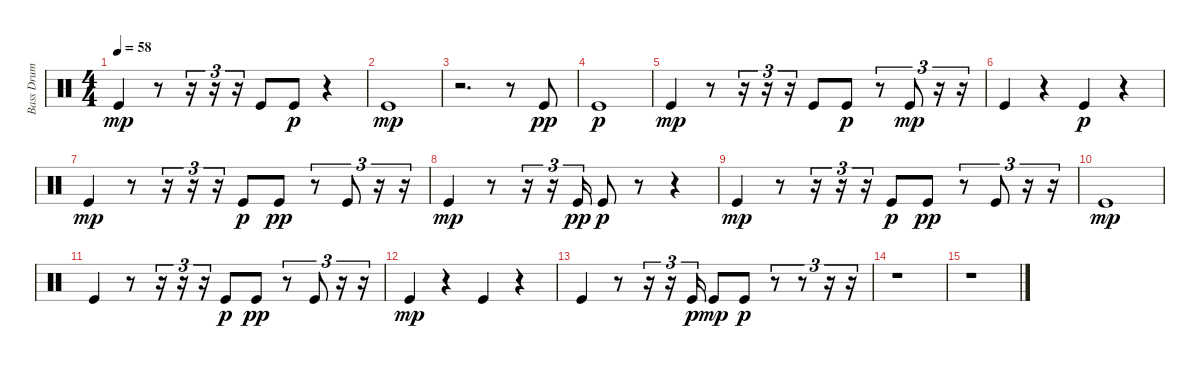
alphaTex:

\track ("Bass Drum" "Bass Drum") {instrument percussion}
\staff {score}
\articulation defaults
\ts (4 4)
\tempo 58
\clef neutral
\ks c "Kick (hit)".4{dy mp}
r.8 r.16{tu (3 2)} r.16{tu (3 2)} r.16{tu (3 2)} "Kick (hit)".8 "Kick (hit)".8{dy p} r.4 |
"Kick (hit)".1{dy mp} |
r.2{d} r.8 "Kick (hit)".8{dy pp} |
"Kick (hit)".1{dy p} |
"Kick (hit)".4{dy mp} r.8 r.16{tu (3 2)} r.16{tu (3 2)} r.16{tu (3 2)} "Kick (hit)".8 "Kick (hit)".8{dy p} r.8{tu (3 2)} "Kick (hit)".8{tu (3 2) dy mp} r.16{tu (3 2)} r.16{tu (3 2)} |
"Kick (hit)".4 r.4 "Kick (hit)".4{dy p} r.4 |
"Kick (hit)".4{dy mp} r.8 r.16{tu (3 2)} r.16{tu (3 2)} r.16{tu (3 2)} "Kick (hit)".8{dy p} "Kick (hit)".8{dy pp} r.8{tu (3 2)} "Kick (hit)".8{tu (3 2)} r.16{tu (3 2)} r.16{tu (3 2)} |
"Kick (hit)".4{dy mp} r.8 r.16{tu (3 2)} r.16{tu (3 2)} "Kick (hit)".16{tu (3 2) dy pp} "Kick (hit)".8{dy p} r.8 r.4 |
"Kick (hit)".4{dy mp} r.8 r.16{tu (3 2)} r.16{tu (3 2)} r.16{tu (3 2)} "Kick (hit)".8{dy p} "Kick (hit)".8{dy pp} r.8{tu (3 2)} "Kick (hit)".8{tu (3 2)} r.16{tu (3 2)} r.16{tu (3 2)} |
"Kick (hit)".1{dy mp} |
"Kick (hit)".4 r.8 r.16{tu (3 2)} r.16{tu (3 2)} r.16{tu (3 2)} "Kick (hit)".8{dy p} "Kick (hit)".8{dy pp} r.8{tu (3 2)} "Kick (hit)".8{tu (3 2)} r.16{tu (3 2)} r.16{tu (3 2)} |
"Kick (hit)".4{dy mp} r.4 "Kick (hit)".4 r.4 |
"Kick (hit)".4 r.8 r.16{tu (3 2)} r.16{tu (3 2)} "Kick (hit)".16{tu (3 2) dy p} "Kick (hit)".8{dy mp} "Kick (hit)".8{dy p} r.8{tu (3 2)} r.8{tu (3 2)} r.16{tu (3 2)} r.16{tu (3 2)} |
r.1 |
r.1
